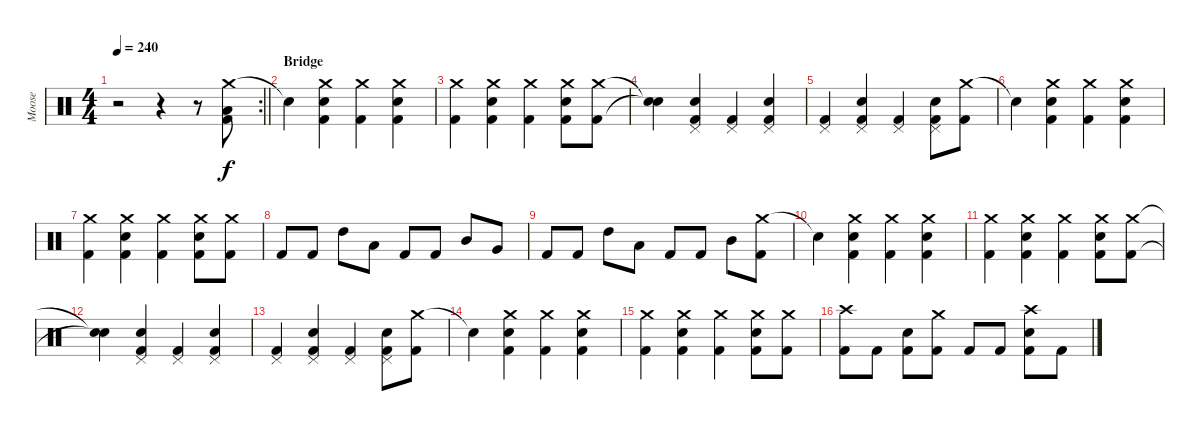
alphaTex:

\track ("Moose" "Moose") {instrument percussion}
\staff {score}
\articulation defaults
\rc 2
\ts (4 4)
\tempo 240
\clef neutral
\barLineRight lightlight
\ks c
r.2{dy f} r.4 r.8 ("Crash medium (hit)" "Low Floor Tom (hit)" "Kick (hit) 2").8 |
\section ("" "Bridge")
"Snare (hit)"{t}.4 ("Crash medium (hit)" "Snare (hit) 2" "Kick (hit) 2").4 ("Crash medium (hit)" "Kick (hit) 2").4 ("Crash medium (hit)" "Snare (hit) 2" "Kick (hit) 2").4 |
("Crash medium (hit)" "Kick (hit) 2").4 ("Crash medium (hit)" "Snare (hit) 2" "Kick (hit) 2").4 ("Crash medium (hit)" "Kick (hit) 2").4 ("Crash medium (hit)" "Snare (hit) 2" "Kick (hit) 2").8 ("Crash medium (hit)" "Kick (hit) 2").8 |
("Snare (hit)"{t} "Snare (hit)"{t}).4 ("Pedal Hi-Hat (hit)" "Snare (hit) 2" "Kick (hit) 2").4 ("Pedal Hi-Hat (hit)" "Kick (hit) 2").4 ("Pedal Hi-Hat (hit)" "Snare (hit) 2" "Kick (hit) 2").4 |
("Pedal Hi-Hat (hit)" "Kick (hit) 2").4 ("Pedal Hi-Hat (hit)" "Snare (hit) 2" "Kick (hit) 2").4 ("Pedal Hi-Hat (hit)" "Kick (hit) 2").4 ("Pedal Hi-Hat (hit)" "Snare (hit) 2" "Kick (hit) 2").8 ("Crash medium (hit)" "Kick (hit) 2").8 |
"Snare (hit)"{t}.4 ("Crash medium (hit)" "Snare (hit) 2" "Kick (hit) 2").4 ("Crash medium (hit)" "Kick (hit) 2").4 ("Crash medium (hit)" "Snare (hit) 2" "Kick (hit) 2").4 |
("Crash medium (hit)" "Kick (hit) 2").4 ("Crash medium (hit)" "Snare (hit) 2" "Kick (hit) 2").4 ("Crash medium (hit)" "Kick (hit) 2").4 ("Crash medium (hit)" "Snare (hit) 2" "Kick (hit) 2").8 ("Crash medium (hit)" "Kick (hit) 2").8 |
"Kick (hit) 2".8 "Kick (hit) 2".8 "High Tom (hit)".8 "Low Tom (hit)".8 "Kick (hit) 2".8 "Kick (hit) 2".8 "Mid Tom (hit)".8 "Very Low Tom (hit)".8 |
"Kick (hit) 2".8 "Kick (hit) 2".8 "High Tom (hit)".8 "Low Tom (hit)".8 "Kick (hit) 2".8 "Kick (hit) 2".8 "Mid Tom (hit)".8 ("Crash medium (hit)" "Kick (hit) 2").8 |
"Snare (hit)"{t}.4 ("Crash medium (hit)" "Snare (hit) 2" "Kick (hit) 2").4 ("Crash medium (hit)" "Kick (hit) 2").4 ("Crash medium (hit)" "Snare (hit) 2" "Kick (hit) 2").4 |
("Crash medium (hit)" "Kick (hit) 2").4 ("Crash medium (hit)" "Snare (hit) 2" "Kick (hit) 2").4 ("Crash medium (hit)" "Kick (hit) 2").4 ("Crash medium (hit)" "Snare (hit) 2" "Kick (hit) 2").8 ("Crash medium (hit)" "Kick (hit) 2").8 |
("Snare (hit)"{t} "Snare (hit)"{t}).4 ("Pedal Hi-Hat (hit)" "Snare (hit) 2" "Kick (hit) 2").4 ("Pedal Hi-Hat (hit)" "Kick (hit) 2").4 ("Pedal Hi-Hat (hit)" "Snare (hit) 2" "Kick (hit) 2").4 |
("Pedal Hi-Hat (hit)" "Kick (hit) 2").4 ("Pedal Hi-Hat (hit)" "Snare (hit) 2" "Kick (hit) 2").4 ("Pedal Hi-Hat (hit)" "Kick (hit) 2").4 ("Pedal Hi-Hat (hit)" "Snare (hit) 2" "Kick (hit) 2").8 ("Crash medium (hit)" "Kick (hit) 2").8 |
"Snare (hit)"{t}.4 ("Crash medium (hit)" "Snare (hit) 2" "Kick (hit) 2").4 ("Crash medium (hit)" "Kick (hit) 2").4 ("Crash medium (hit)" "Snare (hit) 2" "Kick (hit) 2").4 |
("Crash medium (hit)" "Kick (hit) 2").4 ("Crash medium (hit)" "Snare (hit) 2" "Kick (hit) 2").4 ("Crash medium (hit)" "Kick (hit) 2").4 ("Crash medium (hit)" "Snare (hit) 2" "Kick (hit) 2").8 ("Crash medium (hit)" "Kick (hit) 2").8 |
("Crash high (hit)" "Kick (hit) 2").8 "Kick (hit) 2".8 ("Snare (hit) 2" "Kick (hit) 2").8 ("Crash medium (hit)" "Kick (hit) 2").8 "Kick (hit) 2".8 "Kick (hit) 2".8 ("Crash high (hit)" "Snare (hit) 2" "Kick (hit) 2").8 "Kick (hit) 2".8
